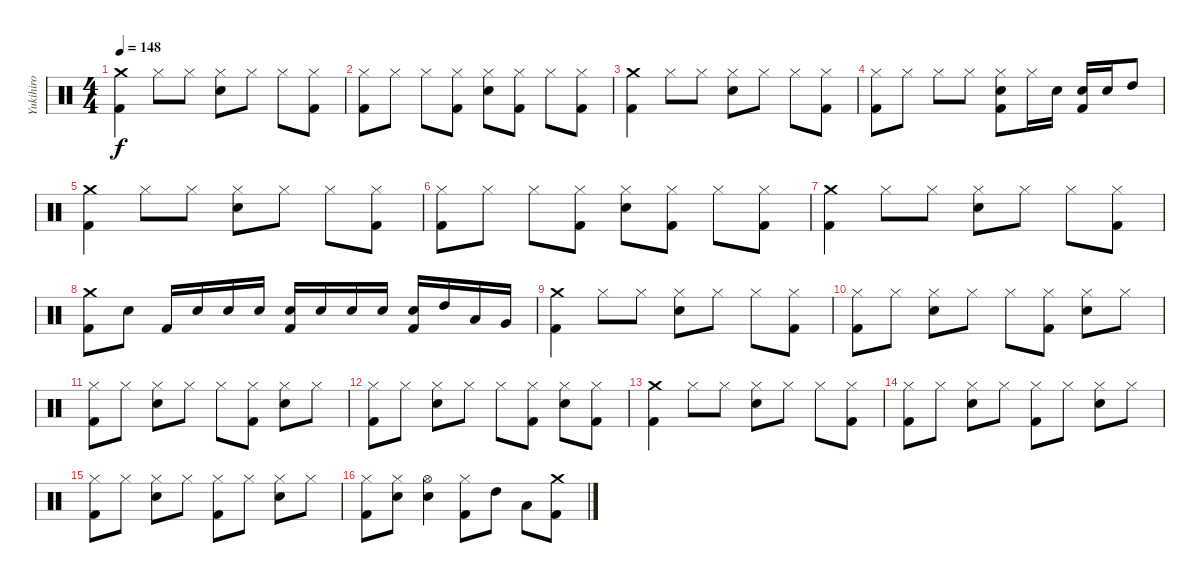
\track ("Yukihiro" "Yukihiro") {instrument percussion}
\staff {score}
\articulation defaults
\ts (4 4)
\tempo 148
\clef neutral
\ks c
("Crash medium (hit)" "Kick (hit) 2").4{dy f} "Hi-Hat (closed)".8 "Hi-Hat (closed)".8 ("Hi-Hat (closed)" "Snare (hit) 2").8 "Hi-Hat (closed)".8 "Hi-Hat (closed)".8 ("Hi-Hat (closed)" "Kick (hit) 2").8 |
("Hi-Hat (closed)" "Kick (hit) 2").8 "Hi-Hat (closed)".8 "Hi-Hat (closed)".8 ("Hi-Hat (closed)" "Kick (hit) 2").8 ("Hi-Hat (closed)" "Snare (hit) 2").8 ("Hi-Hat (closed)" "Kick (hit) 2").8 "Hi-Hat (closed)".8 ("Hi-Hat (closed)" "Kick (hit) 2").8 |
("Crash medium (hit)" "Kick (hit) 2").4 "Hi-Hat (closed)".8 "Hi-Hat (closed)".8 ("Hi-Hat (closed)" "Snare (hit) 2").8 "Hi-Hat (closed)".8 "Hi-Hat (closed)".8 ("Hi-Hat (closed)" "Kick (hit) 2").8 |
("Hi-Hat (closed)" "Kick (hit) 2").8 "Hi-Hat (closed)".8 "Hi-Hat (closed)".8 "Hi-Hat (closed)".8 ("Hi-Hat (closed)" "Snare (hit) 2" "Kick (hit) 2").8 "Hi-Hat (closed)".16 "Snare (hit) 2".16 ("Snare (hit) 2" "Kick (hit) 2").16 "Snare (hit) 2".16 "High Tom (hit)".8 |
("Crash medium (hit)" "Kick (hit) 2").4 "Hi-Hat (closed)".8 "Hi-Hat (closed)".8 ("Hi-Hat (closed)" "Snare (hit) 2").8 "Hi-Hat (closed)".8 "Hi-Hat (closed)".8 ("Hi-Hat (closed)" "Kick (hit) 2").8 |
("Hi-Hat (closed)" "Kick (hit) 2").8 "Hi-Hat (closed)".8 "Hi-Hat (closed)".8 ("Hi-Hat (closed)" "Kick (hit) 2").8 ("Hi-Hat (closed)" "Snare (hit) 2").8 ("Hi-Hat (closed)" "Kick (hit) 2").8 "Hi-Hat (closed)".8 ("Hi-Hat (closed)" "Kick (hit) 2").8 |
("Crash medium (hit)" "Kick (hit) 2").4 "Hi-Hat (closed)".8 "Hi-Hat (closed)".8 ("Hi-Hat (closed)" "Snare (hit) 2").8 "Hi-Hat (closed)".8 "Hi-Hat (closed)".8 ("Hi-Hat (closed)" "Kick (hit) 2").8 |
("Crash medium (hit)" "Kick (hit) 2").8 "Snare (hit) 2".8 "Kick (hit) 2".16 "Snare (hit) 2".16 "Snare (hit) 2".16 "Snare (hit) 2".16 ("Snare (hit) 2" "Kick (hit) 2").16 "Snare (hit) 2".16 "Snare (hit) 2".16 "Snare (hit) 2".16 ("Snare (hit) 2" "Kick (hit) 2").16 "High Tom (hit)".16 "Low Tom (hit)".16 "Very Low Tom (hit)".16 |
("Crash medium (hit)" "Kick (hit) 2").4 "Hi-Hat (closed)".8 "Hi-Hat (closed)".8 ("Hi-Hat (closed)" "Snare (hit) 2").8 "Hi-Hat (closed)".8 "Hi-Hat (closed)".8 ("Hi-Hat (closed)" "Kick (hit) 2").8 |
("Hi-Hat (closed)" "Kick (hit) 2").8 "Hi-Hat (closed)".8 ("Hi-Hat (closed)" "Snare (hit) 2").8 "Hi-Hat (closed)".8 "Hi-Hat (closed)".8 ("Hi-Hat (closed)" "Kick (hit) 2").8 ("Hi-Hat (closed)" "Snare (hit) 2").8 "Hi-Hat (closed)".8 |
("Hi-Hat (closed)" "Kick (hit) 2").8 "Hi-Hat (closed)".8 ("Hi-Hat (closed)" "Snare (hit) 2").8 "Hi-Hat (closed)".8 "Hi-Hat (closed)".8 ("Hi-Hat (closed)" "Kick (hit) 2").8 ("Hi-Hat (closed)" "Snare (hit) 2").8 "Hi-Hat (closed)".8 |
("Hi-Hat (closed)" "Kick (hit) 2").8 "Hi-Hat (closed)".8 ("Hi-Hat (closed)" "Snare (hit) 2").8 "Hi-Hat (closed)".8 "Hi-Hat (closed)".8 ("Hi-Hat (closed)" "Kick (hit) 2").8 ("Hi-Hat (closed)" "Snare (hit) 2").8 ("Hi-Hat (closed)" "Kick (hit) 2").8 |
("Crash medium (hit)" "Kick (hit) 2").4 "Hi-Hat (closed)".8 "Hi-Hat (closed)".8 ("Hi-Hat (closed)" "Snare (hit) 2").8 "Hi-Hat (closed)".8 "Hi-Hat (closed)".8 ("Hi-Hat (closed)" "Kick (hit) 2").8 |
("Hi-Hat (closed)" "Kick (hit) 2").8 "Hi-Hat (closed)".8 ("Hi-Hat (closed)" "Snare (hit) 2").8 "Hi-Hat (closed)".8 ("Hi-Hat (closed)" "Kick (hit) 2").8 "Hi-Hat (closed)".8 ("Hi-Hat (closed)" "Snare (hit) 2").8 "Hi-Hat (closed)".8 |
("Hi-Hat (closed)" "Kick (hit) 2").8 "Hi-Hat (closed)".8 ("Hi-Hat (closed)" "Snare (hit) 2").8 "Hi-Hat (closed)".8 ("Hi-Hat (closed)" "Kick (hit) 2").8 "Hi-Hat (closed)".8 ("Hi-Hat (closed)" "Snare (hit) 2").8 "Hi-Hat (closed)".8 |
("Hi-Hat (closed)" "Kick (hit) 2").8 ("Hi-Hat (closed)" "Snare (hit) 2").8 ("Hi-Hat (open)" "Snare (hit) 2").4 ("Hi-Hat (closed)" "Kick (hit) 2").8 "High Tom (hit)".8 "Low Tom (hit)".8 ("Crash medium (hit)" "Kick (hit) 2").8
